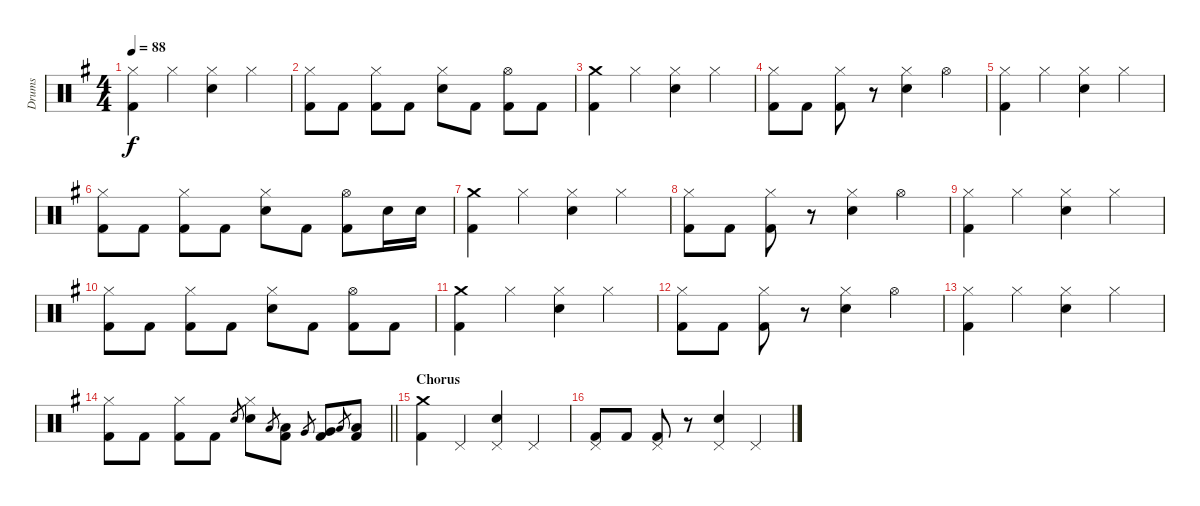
\track ("Drums" "Drums") {instrument percussion}
\staff {score}
\articulation defaults
\ts (4 4)
\tempo 88
\clef neutral
\ks g
("Hi-Hat (closed)" "Kick (hit) 2").4{dy f} "Hi-Hat (closed)".4 ("Hi-Hat (closed)" "Electric Snare (hit)").4 "Hi-Hat (closed)".4 |
("Hi-Hat (closed)" "Kick (hit) 2").8 "Kick (hit) 2".8 ("Hi-Hat (closed)" "Kick (hit) 2").8 "Kick (hit) 2".8 ("Hi-Hat (closed)" "Electric Snare (hit)").8 "Kick (hit) 2".8 ("Hi-Hat (open)" "Kick (hit) 2").8 "Kick (hit) 2".8 |
("Crash medium (hit)" "Kick (hit) 2").4 "Hi-Hat (closed)".4 ("Hi-Hat (closed)" "Electric Snare (hit)").4 "Hi-Hat (closed)".4 |
("Hi-Hat (closed)" "Kick (hit) 2").8 "Kick (hit) 2".8 ("Hi-Hat (closed)" "Kick (hit) 2").8 r.8 ("Hi-Hat (closed)" "Electric Snare (hit)").4 "Hi-Hat (open)".4 |
("Hi-Hat (closed)" "Kick (hit) 2").4 "Hi-Hat (closed)".4 ("Hi-Hat (closed)" "Electric Snare (hit)").4 "Hi-Hat (closed)".4 |
("Hi-Hat (closed)" "Kick (hit) 2").8 "Kick (hit) 2".8 ("Hi-Hat (closed)" "Kick (hit) 2").8 "Kick (hit) 2".8 ("Hi-Hat (closed)" "Electric Snare (hit)").8 "Kick (hit) 2".8 ("Hi-Hat (open)" "Kick (hit) 2").8 "Electric Snare (hit)".16 "Electric Snare (hit)".16 |
("Crash medium (hit)" "Kick (hit) 2").4 "Hi-Hat (closed)".4 ("Hi-Hat (closed)" "Electric Snare (hit)").4 "Hi-Hat (closed)".4 |
("Hi-Hat (closed)" "Kick (hit) 2").8 "Kick (hit) 2".8 ("Hi-Hat (closed)" "Kick (hit) 2").8 r.8 ("Hi-Hat (closed)" "Electric Snare (hit)").4 "Hi-Hat (open)".4 |
("Hi-Hat (closed)" "Kick (hit) 2").4 "Hi-Hat (closed)".4 ("Hi-Hat (closed)" "Electric Snare (hit)").4 "Hi-Hat (closed)".4 |
("Hi-Hat (closed)" "Kick (hit) 2").8 "Kick (hit) 2".8 ("Hi-Hat (closed)" "Kick (hit) 2").8 "Kick (hit) 2".8 ("Hi-Hat (closed)" "Electric Snare (hit)").8 "Kick (hit) 2".8 ("Hi-Hat (open)" "Kick (hit) 2").8 "Kick (hit) 2".8 |
("Crash medium (hit)" "Kick (hit) 2").4 "Hi-Hat (closed)".4 ("Hi-Hat (closed)" "Electric Snare (hit)").4 "Hi-Hat (closed)".4 |
("Hi-Hat (closed)" "Kick (hit) 2").8 "Kick (hit) 2".8 ("Hi-Hat (closed)" "Kick (hit) 2").8 r.8 ("Hi-Hat (closed)" "Electric Snare (hit)").4 "Hi-Hat (open)".4 |
("Hi-Hat (closed)" "Kick (hit) 2").4 "Hi-Hat (closed)".4 ("Hi-Hat (closed)" "Electric Snare (hit)").4 "Hi-Hat (closed)".4 |
\barLineRight lightlight
("Hi-Hat (closed)" "Kick (hit) 2").8 "Kick (hit) 2".8 ("Hi-Hat (closed)" "Kick (hit) 2").8 "Kick (hit) 2".8 "Electric Snare (hit)".8{gr} ("Hi-Hat (closed)" "Electric Snare (hit)").8 "Low Tom (hit)".8{gr} ("Low Tom (hit)" "Kick (hit) 2").8 "Very Low Tom (hit)".8{gr} ("Very Low Tom (hit)" "Kick (hit) 2").8 "Low Floor Tom (hit)".8{gr} ("Low Floor Tom (hit)" "Kick (hit) 2").8 |
\section ("" "Chorus")
("Crash medium (hit)" "Kick (hit) 2").4 "Pedal Hi-Hat (hit)".4 ("Pedal Hi-Hat (hit)" "Electric Snare (hit)").4 "Pedal Hi-Hat (hit)".4 |
("Pedal Hi-Hat (hit)" "Kick (hit) 2").8 "Kick (hit) 2".8 ("Pedal Hi-Hat (hit)" "Kick (hit) 2").8 r.8 ("Pedal Hi-Hat (hit)" "Electric Snare (hit)").4 "Pedal Hi-Hat (hit)".4
